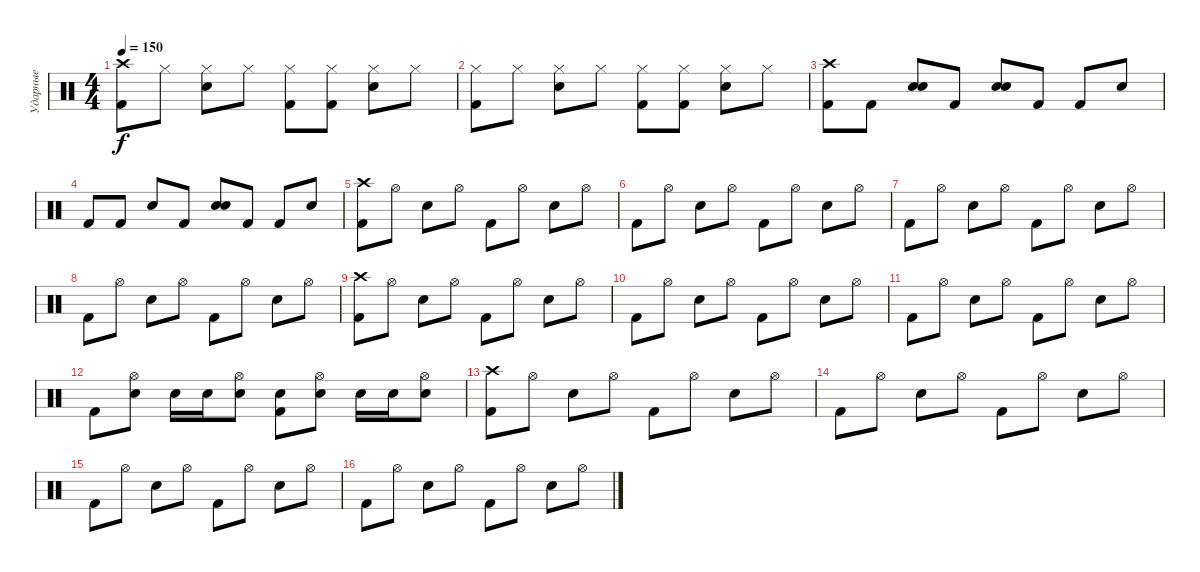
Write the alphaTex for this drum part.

\track ("Ударные" "Ударные") {instrument percussion}
\staff {score}
\articulation defaults
\ts (4 4)
\tempo 150
\clef neutral
\ks c
("Crash high (hit)" "Kick (hit) 2").8{dy f} "Hi-Hat (closed)".8 ("Hi-Hat (closed)" "Electric Snare (hit)").8 "Hi-Hat (closed)".8 ("Hi-Hat (closed)" "Kick (hit) 2").8 ("Hi-Hat (closed)" "Kick (hit) 2").8 ("Hi-Hat (closed)" "Electric Snare (hit)").8 "Hi-Hat (closed)".8 |
("Hi-Hat (closed)" "Kick (hit) 2").8 "Hi-Hat (closed)".8 ("Hi-Hat (closed)" "Electric Snare (hit)").8 "Hi-Hat (closed)".8 ("Hi-Hat (closed)" "Kick (hit) 2").8 ("Hi-Hat (closed)" "Kick (hit) 2").8 ("Hi-Hat (closed)" "Electric Snare (hit)").8 "Hi-Hat (closed)".8 |
("Crash high (hit)" "Kick (hit) 2").8 "Kick (hit) 2".8 ("Electric Snare (hit)" "Snare (hit) 2").8 "Kick (hit) 2".8 ("Electric Snare (hit)" "Snare (hit) 2").8 "Kick (hit) 2".8 "Kick (hit) 2".8 "Electric Snare (hit)".8 |
"Kick (hit) 2".8 "Kick (hit) 2".8 "Electric Snare (hit)".8 "Kick (hit) 2".8 ("Electric Snare (hit)" "Snare (hit) 2").8 "Kick (hit) 2".8 "Kick (hit) 2".8 "Electric Snare (hit)".8 |
("Crash high (hit)" "Kick (hit) 2").8 "Hi-Hat (open)".8 "Electric Snare (hit)".8 "Hi-Hat (open)".8 "Kick (hit) 2".8 "Hi-Hat (open)".8 "Electric Snare (hit)".8 "Hi-Hat (open)".8 |
"Kick (hit) 2".8 "Hi-Hat (open)".8 "Electric Snare (hit)".8 "Hi-Hat (open)".8 "Kick (hit) 2".8 "Hi-Hat (open)".8 "Electric Snare (hit)".8 "Hi-Hat (open)".8 |
"Kick (hit) 2".8 "Hi-Hat (open)".8 "Electric Snare (hit)".8 "Hi-Hat (open)".8 "Kick (hit) 2".8 "Hi-Hat (open)".8 "Electric Snare (hit)".8 "Hi-Hat (open)".8 |
"Kick (hit) 2".8 "Hi-Hat (open)".8 "Electric Snare (hit)".8 "Hi-Hat (open)".8 "Kick (hit) 2".8 "Hi-Hat (open)".8 "Electric Snare (hit)".8 "Hi-Hat (open)".8 |
("Crash high (hit)" "Kick (hit) 2").8 "Hi-Hat (open)".8 "Electric Snare (hit)".8 "Hi-Hat (open)".8 "Kick (hit) 2".8 "Hi-Hat (open)".8 "Electric Snare (hit)".8 "Hi-Hat (open)".8 |
"Kick (hit) 2".8 "Hi-Hat (open)".8 "Electric Snare (hit)".8 "Hi-Hat (open)".8 "Kick (hit) 2".8 "Hi-Hat (open)".8 "Electric Snare (hit)".8 "Hi-Hat (open)".8 |
"Kick (hit) 2".8 "Hi-Hat (open)".8 "Electric Snare (hit)".8 "Hi-Hat (open)".8 "Kick (hit) 2".8 "Hi-Hat (open)".8 "Electric Snare (hit)".8 "Hi-Hat (open)".8 |
"Kick (hit) 2".8 ("Hi-Hat (open)" "Electric Snare (hit)").8 "Electric Snare (hit)".16 "Electric Snare (hit)".16 ("Hi-Hat (open)" "Electric Snare (hit)").8 ("Electric Snare (hit)" "Kick (hit) 2").8 ("Hi-Hat (open)" "Electric Snare (hit)").8 "Electric Snare (hit)".16 "Electric Snare (hit)".16 ("Hi-Hat (open)" "Electric Snare (hit)").8 |
("Crash high (hit)" "Kick (hit) 2").8 "Hi-Hat (open)".8 "Electric Snare (hit)".8 "Hi-Hat (open)".8 "Kick (hit) 2".8 "Hi-Hat (open)".8 "Electric Snare (hit)".8 "Hi-Hat (open)".8 |
"Kick (hit) 2".8 "Hi-Hat (open)".8 "Electric Snare (hit)".8 "Hi-Hat (open)".8 "Kick (hit) 2".8 "Hi-Hat (open)".8 "Electric Snare (hit)".8 "Hi-Hat (open)".8 |
"Kick (hit) 2".8 "Hi-Hat (open)".8 "Electric Snare (hit)".8 "Hi-Hat (open)".8 "Kick (hit) 2".8 "Hi-Hat (open)".8 "Electric Snare (hit)".8 "Hi-Hat (open)".8 |
"Kick (hit) 2".8 "Hi-Hat (open)".8 "Electric Snare (hit)".8 "Hi-Hat (open)".8 "Kick (hit) 2".8 "Hi-Hat (open)".8 "Electric Snare (hit)".8 "Hi-Hat (open)".8
